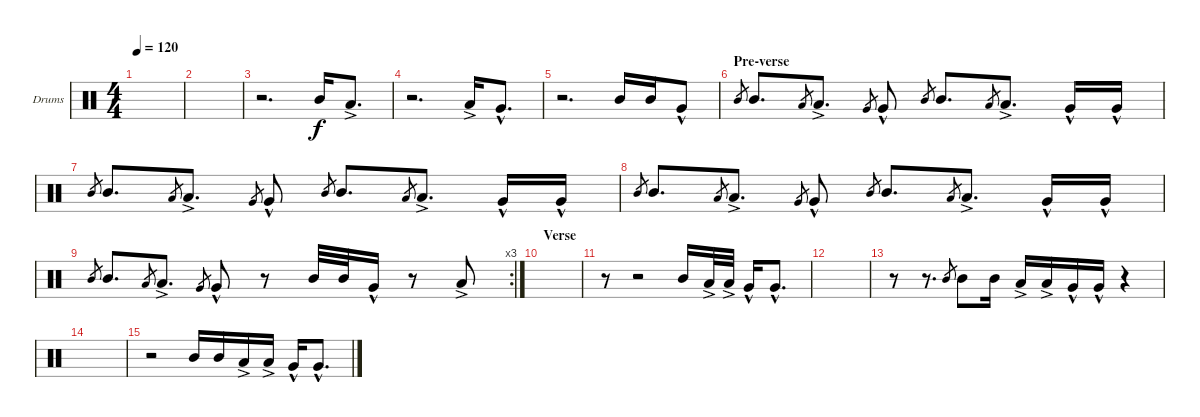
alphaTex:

\defaultSystemsLayout 4
\bracketExtendMode groupsimilarinstruments
\firstSystemTrackNameOrientation horizontal
\otherSystemsTrackNameOrientation horizontal
\track ("Drumkit" "Drums") {instrument percussion}
\staff {score}
\articulation defaults
\ts (4 4)
\tempo 120
\clef neutral
\ks c
|
|
r.2{d} "Mid Tom (hit)".16 "Low Tom (hit)"{ac}.8{d} |
r.2{d} "Low Tom (hit)"{ac}.16 "Very Low Tom (hit)"{hac}.8{d} |
r.2{d} "Mid Tom (hit)".16 "Mid Tom (hit)".16 "Very Low Tom (hit)"{hac}.8 |
\section ("" "Pre-verse")
"Mid Tom (hit)".8{gr} "Mid Tom (hit)".8{d} "Low Tom (hit)".8{gr} "Low Tom (hit)"{ac}.8{d} "Very Low Tom (hit)".8{gr} "Very Low Tom (hit)"{hac}.8 "Mid Tom (hit)".8{gr} "Mid Tom (hit)".8{d} "Low Tom (hit)".8{gr} "Low Tom (hit)"{ac}.8{d} "Very Low Tom (hit)"{hac}.16 "Very Low Tom (hit)"{hac}.16 |
"Mid Tom (hit)".8{gr} "Mid Tom (hit)".8{d} "Low Tom (hit)".8{gr} "Low Tom (hit)"{ac}.8{d} "Very Low Tom (hit)".8{gr} "Very Low Tom (hit)"{hac}.8 "Mid Tom (hit)".8{gr} "Mid Tom (hit)".8{d} "Low Tom (hit)".8{gr} "Low Tom (hit)"{ac}.8{d} "Very Low Tom (hit)"{hac}.16 "Very Low Tom (hit)"{hac}.16 |
"Mid Tom (hit)".8{gr} "Mid Tom (hit)".8{d} "Low Tom (hit)".8{gr} "Low Tom (hit)"{ac}.8{d} "Very Low Tom (hit)".8{gr} "Very Low Tom (hit)"{hac}.8 "Mid Tom (hit)".8{gr} "Mid Tom (hit)".8{d} "Low Tom (hit)".8{gr} "Low Tom (hit)"{ac}.8{d} "Very Low Tom (hit)"{hac}.16 "Very Low Tom (hit)"{hac}.16 |
\rc 3 "Mid Tom (hit)".8{gr} "Mid Tom (hit)".8{d} "Low Tom (hit)".8{gr} "Low Tom (hit)"{ac}.8{d} "Very Low Tom (hit)".8{gr} "Very Low Tom (hit)"{hac}.8
r.8 "Mid Tom (hit)".32 "Mid Tom (hit)".32 "Very Low Tom (hit)"{hac}.16 r.8 "Low Tom (hit)"{ac}.8 |
\section ("" "Verse")
|
r.8 r.2 "Mid Tom (hit)".16 "Low Tom (hit)"{ac}.32 "Low Tom (hit)"{ac}.32 "Very Low Tom (hit)"{hac}.16 "Very Low Tom (hit)"{hac}.8{d} |
|
r.8 r.8{d} "Mid Tom (hit)".8{gr} "Mid Tom (hit)".8 "Mid Tom (hit)".16 "Low Tom (hit)"{ac}.16 "Low Tom (hit)"{ac}.16 "Very Low Tom (hit)"{hac}.16 "Very Low Tom (hit)"{hac}.16 r.4 |
|
r.2 "Mid Tom (hit)".16 "Mid Tom (hit)".16 "Low Tom (hit)"{ac}.16 "Low Tom (hit)"{ac}.16 "Very Low Tom (hit)"{hac}.16 "Very Low Tom (hit)"{hac}.8{d}
